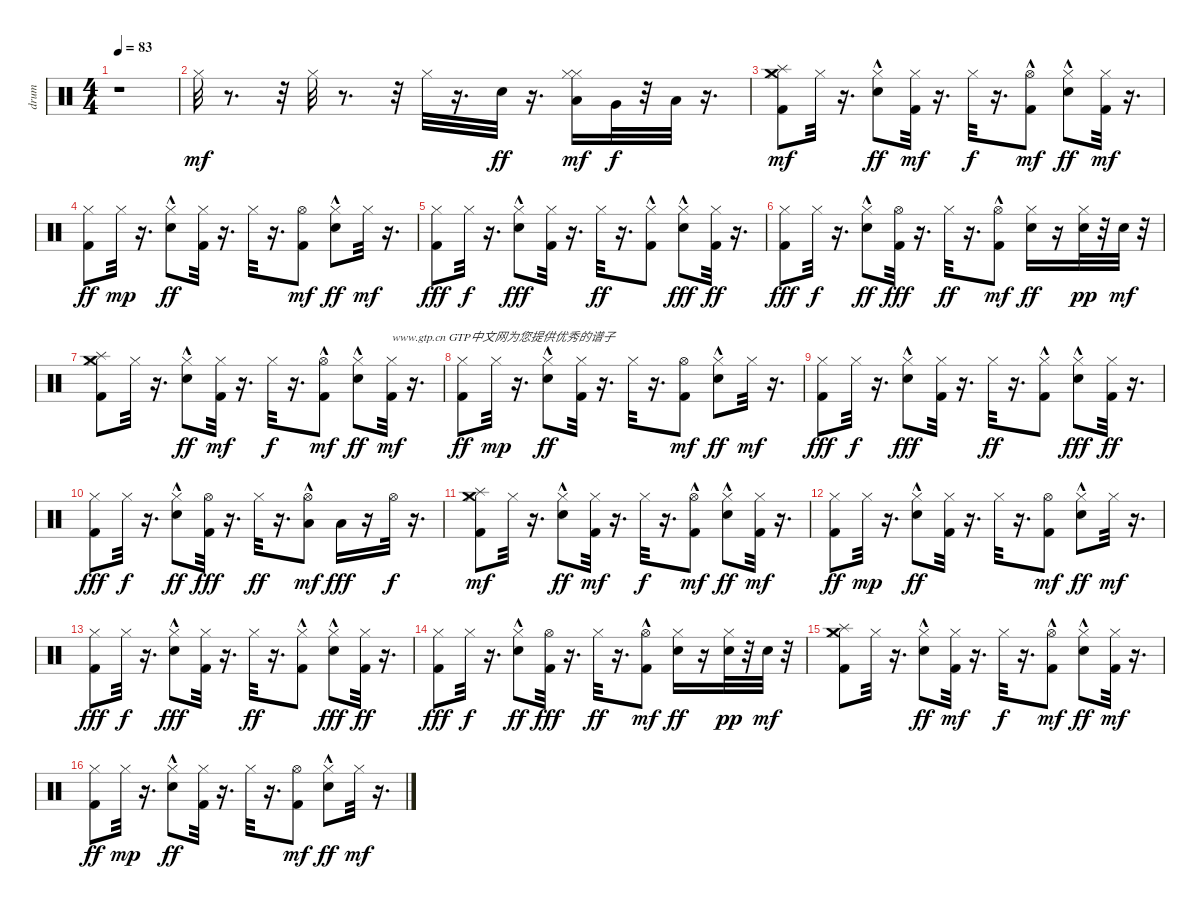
\track ("drum" "drum") {instrument percussion}
\staff {score}
\articulation defaults
\ts (4 4)
\tempo 83
\clef neutral
\ks c
r.1{dy mf} |
"Hi-Hat (closed)".32 r.8{d} r.32 "Hi-Hat (closed)".32 r.8{d} r.32 "Hi-Hat (closed)".32 r.16{d} "Electric Snare (hit)".32{dy ff} r.16{d} ("Low Floor Tom (hit)" "Hi-Hat (closed)" "Hi-Hat (closed)").16{dy mf} "Very Low Tom (hit)".32{dy f} r.32 "Low Tom (hit)".32 r.16{d} |
("Kick (hit) 2" "Hi-Hat (closed)" "Splash (hit)" "Crash medium (hit)").8{dy mf} "Hi-Hat (closed)".32 r.16{d} ("Electric Snare (hit)"{hac} "Hi-Hat (closed)").8{dy ff} ("Kick (hit) 2" "Hi-Hat (closed)").32{dy mf} r.16{d} "Hi-Hat (closed)".32{dy f} r.16{d} ("Kick (hit) 2"{hac} "Hi-Hat (open)").8{dy mf} ("Electric Snare (hit)"{hac} "Hi-Hat (closed)").8{dy ff} ("Kick (hit) 2" "Hi-Hat (closed)").32{dy mf} r.16{d} |
("Kick (hit) 2" "Hi-Hat (closed)").8{dy ff} "Hi-Hat (closed)".32{dy mp} r.16{d} ("Electric Snare (hit)"{hac} "Hi-Hat (closed)").8{dy ff} ("Kick (hit) 2" "Hi-Hat (closed)").32 r.16{d} "Hi-Hat (closed)".32 r.16{d} ("Kick (hit) 2" "Hi-Hat (open)").8{dy mf} ("Electric Snare (hit)"{hac} "Hi-Hat (closed)").8{dy ff} "Hi-Hat (closed)".32{dy mf} r.16{d} |
("Kick (hit) 2" "Hi-Hat (closed)").8{dy fff} "Hi-Hat (closed)".32{dy f} r.16{d} ("Electric Snare (hit)"{hac} "Hi-Hat (closed)").8{dy fff} ("Kick (hit) 2" "Hi-Hat (closed)").32 r.16{d} "Hi-Hat (closed)".32{dy ff} r.16{d} ("Kick (hit) 2"{hac} "Hi-Hat (closed)").8 ("Electric Snare (hit)"{hac} "Hi-Hat (closed)").8{dy fff} ("Kick (hit) 2" "Hi-Hat (closed)").32{dy ff} r.16{d} |
("Kick (hit) 2" "Hi-Hat (closed)").8{dy fff} "Hi-Hat (closed)".32{dy f} r.16{d} ("Electric Snare (hit)"{hac} "Hi-Hat (closed)").8{dy ff} ("Kick (hit) 2" "Hi-Hat (open)").32{dy fff} r.16{d} "Hi-Hat (closed)".32{dy ff} r.16{d} ("Kick (hit) 2"{hac} "Hi-Hat (open)").8{dy mf} ("Electric Snare (hit)" "Hi-Hat (closed)").16{dy ff} r.16 ("Electric Snare (hit)" "Hi-Hat (closed)").32{dy pp} r.32 "Electric Snare (hit)".32{dy mf} r.32 |
("Kick (hit) 2" "Hi-Hat (closed)" "Splash (hit)" "Crash medium (hit)").8 "Hi-Hat (closed)".32 r.16{d} ("Electric Snare (hit)"{hac} "Hi-Hat (closed)").8{dy ff} ("Kick (hit) 2" "Hi-Hat (closed)").32{dy mf} r.16{d} "Hi-Hat (closed)".32{dy f} r.16{d} ("Kick (hit) 2"{hac} "Hi-Hat (open)").8{dy mf} ("Electric Snare (hit)"{hac} "Hi-Hat (closed)").8{dy ff} ("Kick (hit) 2" "Hi-Hat (closed)").32{txt "www.gtp.cn GTP中文网为您提供优秀的谱子" dy mf} r.16{d} |
("Kick (hit) 2" "Hi-Hat (closed)").8{dy ff} "Hi-Hat (closed)".32{dy mp} r.16{d} ("Electric Snare (hit)"{hac} "Hi-Hat (closed)").8{dy ff} ("Kick (hit) 2" "Hi-Hat (closed)").32 r.16{d} "Hi-Hat (closed)".32 r.16{d} ("Kick (hit) 2" "Hi-Hat (open)").8{dy mf} ("Electric Snare (hit)"{hac} "Hi-Hat (closed)").8{dy ff} "Hi-Hat (closed)".32{dy mf} r.16{d} |
("Kick (hit) 2" "Hi-Hat (closed)").8{dy fff} "Hi-Hat (closed)".32{dy f} r.16{d} ("Electric Snare (hit)"{hac} "Hi-Hat (closed)").8{dy fff} ("Kick (hit) 2" "Hi-Hat (closed)").32 r.16{d} "Hi-Hat (closed)".32{dy ff} r.16{d} ("Kick (hit) 2"{hac} "Hi-Hat (closed)").8 ("Electric Snare (hit)"{hac} "Hi-Hat (closed)").8{dy fff} ("Kick (hit) 2" "Hi-Hat (closed)").32{dy ff} r.16{d} |
("Kick (hit) 2" "Hi-Hat (closed)").8{dy fff} "Hi-Hat (closed)".32{dy f} r.16{d} ("Electric Snare (hit)"{hac} "Hi-Hat (closed)").8{dy ff} ("Kick (hit) 2" "Hi-Hat (open)").32{dy fff} r.16{d} "Hi-Hat (closed)".32{dy ff} r.16{d} ("Low Floor Tom (hit)"{hac} "Hi-Hat (open)").8{dy mf} "Low Tom (hit)".16{dy fff} r.16 "Hi-Hat (open)".32{dy f} r.16{d} |
("Kick (hit) 2" "Hi-Hat (closed)" "Splash (hit)" "Crash medium (hit)").8{dy mf} "Hi-Hat (closed)".32 r.16{d} ("Electric Snare (hit)"{hac} "Hi-Hat (closed)").8{dy ff} ("Kick (hit) 2" "Hi-Hat (closed)").32{dy mf} r.16{d} "Hi-Hat (closed)".32{dy f} r.16{d} ("Kick (hit) 2"{hac} "Hi-Hat (open)").8{dy mf} ("Electric Snare (hit)"{hac} "Hi-Hat (closed)").8{dy ff} ("Kick (hit) 2" "Hi-Hat (closed)").32{dy mf} r.16{d} |
("Kick (hit) 2" "Hi-Hat (closed)").8{dy ff} "Hi-Hat (closed)".32{dy mp} r.16{d} ("Electric Snare (hit)"{hac} "Hi-Hat (closed)").8{dy ff} ("Kick (hit) 2" "Hi-Hat (closed)").32 r.16{d} "Hi-Hat (closed)".32 r.16{d} ("Kick (hit) 2" "Hi-Hat (open)").8{dy mf} ("Electric Snare (hit)"{hac} "Hi-Hat (closed)").8{dy ff} "Hi-Hat (closed)".32{dy mf} r.16{d} |
("Kick (hit) 2" "Hi-Hat (closed)").8{dy fff} "Hi-Hat (closed)".32{dy f} r.16{d} ("Electric Snare (hit)"{hac} "Hi-Hat (closed)").8{dy fff} ("Kick (hit) 2" "Hi-Hat (closed)").32 r.16{d} "Hi-Hat (closed)".32{dy ff} r.16{d} ("Kick (hit) 2"{hac} "Hi-Hat (closed)").8 ("Electric Snare (hit)"{hac} "Hi-Hat (closed)").8{dy fff} ("Kick (hit) 2" "Hi-Hat (closed)").32{dy ff} r.16{d} |
("Kick (hit) 2" "Hi-Hat (closed)").8{dy fff} "Hi-Hat (closed)".32{dy f} r.16{d} ("Electric Snare (hit)"{hac} "Hi-Hat (closed)").8{dy ff} ("Kick (hit) 2" "Hi-Hat (open)").32{dy fff} r.16{d} "Hi-Hat (closed)".32{dy ff} r.16{d} ("Kick (hit) 2"{hac} "Hi-Hat (open)").8{dy mf} ("Electric Snare (hit)" "Hi-Hat (closed)").16{dy ff} r.16 ("Electric Snare (hit)" "Hi-Hat (closed)").32{dy pp} r.32 "Electric Snare (hit)".32{dy mf} r.32 |
("Kick (hit) 2" "Hi-Hat (closed)" "Splash (hit)" "Crash medium (hit)").8 "Hi-Hat (closed)".32 r.16{d} ("Electric Snare (hit)"{hac} "Hi-Hat (closed)").8{dy ff} ("Kick (hit) 2" "Hi-Hat (closed)").32{dy mf} r.16{d} "Hi-Hat (closed)".32{dy f} r.16{d} ("Kick (hit) 2"{hac} "Hi-Hat (open)").8{dy mf} ("Electric Snare (hit)"{hac} "Hi-Hat (closed)").8{dy ff} ("Kick (hit) 2" "Hi-Hat (closed)").32{dy mf} r.16{d} |
("Kick (hit) 2" "Hi-Hat (closed)").8{dy ff} "Hi-Hat (closed)".32{dy mp} r.16{d} ("Electric Snare (hit)"{hac} "Hi-Hat (closed)").8{dy ff} ("Kick (hit) 2" "Hi-Hat (closed)").32 r.16{d} "Hi-Hat (closed)".32 r.16{d} ("Kick (hit) 2" "Hi-Hat (open)").8{dy mf} ("Electric Snare (hit)"{hac} "Hi-Hat (closed)").8{dy ff} "Hi-Hat (closed)".32{dy mf} r.16{d}
